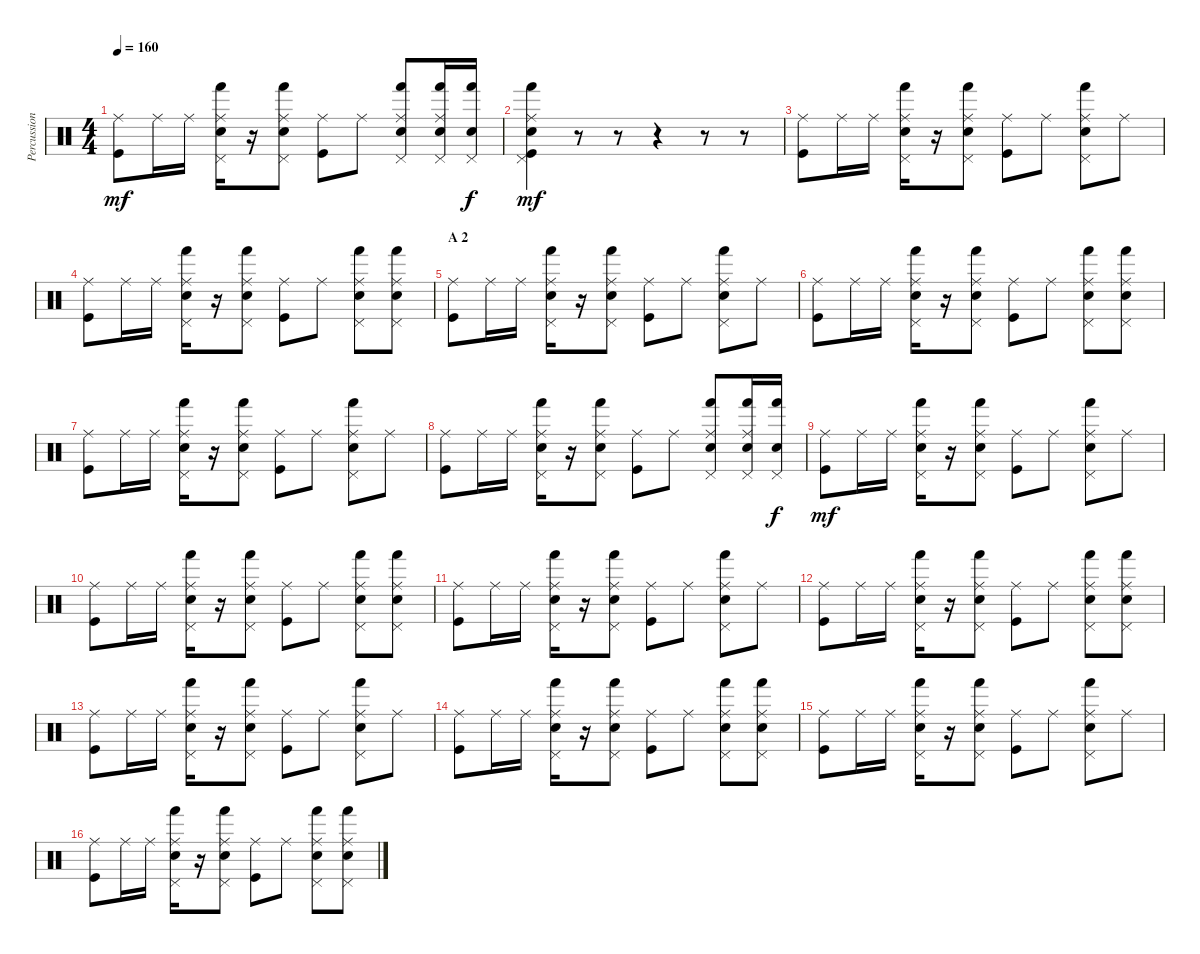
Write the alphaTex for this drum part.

\track ("Percussion" "Percussion") {instrument percussion}
\staff {score}
\articulation defaults
\ts (4 4)
\tempo 160
\clef neutral
\ks c
("Ride (middle)" "Kick (hit)").8{dy mf} "Ride (middle)".16 "Ride (middle)".16 ("Ride (middle)" "Pedal Hi-Hat (hit)" "Hand (hit)" "Electric Snare (hit)").16 r.16 ("Ride (middle)" "Pedal Hi-Hat (hit)" "Hand (hit)" "Electric Snare (hit)").8 ("Ride (middle)" "Kick (hit)").8 "Ride (middle)".8 ("Ride (middle)" "Pedal Hi-Hat (hit)" "Hand (hit)" "Electric Snare (hit)").8 ("Ride (middle)" "Pedal Hi-Hat (hit)" "Hand (hit)" "Electric Snare (hit)").16 ("Pedal Hi-Hat (hit)" "Hand (hit)" "Electric Snare (hit)").16{dy f} |
("Ride (middle)" "Pedal Hi-Hat (hit)" "Hand (hit)" "Electric Snare (hit)" "Kick (hit)").4{dy mf} r.8 r.8 r.4 r.8 r.8 |
("Ride (middle)" "Kick (hit)").8 "Ride (middle)".16 "Ride (middle)".16 ("Ride (middle)" "Pedal Hi-Hat (hit)" "Hand (hit)" "Electric Snare (hit)").16 r.16 ("Ride (middle)" "Pedal Hi-Hat (hit)" "Hand (hit)" "Electric Snare (hit)").8 ("Ride (middle)" "Kick (hit)").8 "Ride (middle)".8 ("Ride (middle)" "Pedal Hi-Hat (hit)" "Hand (hit)" "Electric Snare (hit)").8 "Ride (middle)".8 |
("Ride (middle)" "Kick (hit)").8 "Ride (middle)".16 "Ride (middle)".16 ("Ride (middle)" "Pedal Hi-Hat (hit)" "Hand (hit)" "Electric Snare (hit)").16 r.16 ("Ride (middle)" "Pedal Hi-Hat (hit)" "Hand (hit)" "Electric Snare (hit)").8 ("Ride (middle)" "Kick (hit)").8 "Ride (middle)".8 ("Ride (middle)" "Pedal Hi-Hat (hit)" "Hand (hit)" "Electric Snare (hit)").8 ("Ride (middle)" "Pedal Hi-Hat (hit)" "Hand (hit)" "Electric Snare (hit)").8 |
\section ("" "A 2")
("Ride (middle)" "Kick (hit)").8 "Ride (middle)".16 "Ride (middle)".16 ("Ride (middle)" "Pedal Hi-Hat (hit)" "Hand (hit)" "Electric Snare (hit)").16 r.16 ("Ride (middle)" "Pedal Hi-Hat (hit)" "Hand (hit)" "Electric Snare (hit)").8 ("Ride (middle)" "Kick (hit)").8 "Ride (middle)".8 ("Ride (middle)" "Pedal Hi-Hat (hit)" "Hand (hit)" "Electric Snare (hit)").8 "Ride (middle)".8 |
("Ride (middle)" "Kick (hit)").8 "Ride (middle)".16 "Ride (middle)".16 ("Ride (middle)" "Pedal Hi-Hat (hit)" "Hand (hit)" "Electric Snare (hit)").16 r.16 ("Ride (middle)" "Pedal Hi-Hat (hit)" "Hand (hit)" "Electric Snare (hit)").8 ("Ride (middle)" "Kick (hit)").8 "Ride (middle)".8 ("Ride (middle)" "Pedal Hi-Hat (hit)" "Hand (hit)" "Electric Snare (hit)").8 ("Ride (middle)" "Pedal Hi-Hat (hit)" "Hand (hit)" "Electric Snare (hit)").8 |
("Ride (middle)" "Kick (hit)").8 "Ride (middle)".16 "Ride (middle)".16 ("Ride (middle)" "Pedal Hi-Hat (hit)" "Hand (hit)" "Electric Snare (hit)").16 r.16 ("Ride (middle)" "Pedal Hi-Hat (hit)" "Hand (hit)" "Electric Snare (hit)").8 ("Ride (middle)" "Kick (hit)").8 "Ride (middle)".8 ("Ride (middle)" "Pedal Hi-Hat (hit)" "Hand (hit)" "Electric Snare (hit)").8 "Ride (middle)".8 |
("Ride (middle)" "Kick (hit)").8 "Ride (middle)".16 "Ride (middle)".16 ("Ride (middle)" "Pedal Hi-Hat (hit)" "Hand (hit)" "Electric Snare (hit)").16 r.16 ("Ride (middle)" "Pedal Hi-Hat (hit)" "Hand (hit)" "Electric Snare (hit)").8 ("Ride (middle)" "Kick (hit)").8 "Ride (middle)".8 ("Ride (middle)" "Pedal Hi-Hat (hit)" "Hand (hit)" "Electric Snare (hit)").8 ("Ride (middle)" "Pedal Hi-Hat (hit)" "Hand (hit)" "Electric Snare (hit)").16 ("Pedal Hi-Hat (hit)" "Hand (hit)" "Electric Snare (hit)").16{dy f} |
("Ride (middle)" "Kick (hit)").8{dy mf} "Ride (middle)".16 "Ride (middle)".16 ("Ride (middle)" "Pedal Hi-Hat (hit)" "Hand (hit)" "Electric Snare (hit)").16 r.16 ("Ride (middle)" "Pedal Hi-Hat (hit)" "Hand (hit)" "Electric Snare (hit)").8 ("Ride (middle)" "Kick (hit)").8 "Ride (middle)".8 ("Ride (middle)" "Pedal Hi-Hat (hit)" "Hand (hit)" "Electric Snare (hit)").8 "Ride (middle)".8 |
("Ride (middle)" "Kick (hit)").8 "Ride (middle)".16 "Ride (middle)".16 ("Ride (middle)" "Pedal Hi-Hat (hit)" "Hand (hit)" "Electric Snare (hit)").16 r.16 ("Ride (middle)" "Pedal Hi-Hat (hit)" "Hand (hit)" "Electric Snare (hit)").8 ("Ride (middle)" "Kick (hit)").8 "Ride (middle)".8 ("Ride (middle)" "Pedal Hi-Hat (hit)" "Hand (hit)" "Electric Snare (hit)").8 ("Ride (middle)" "Pedal Hi-Hat (hit)" "Hand (hit)" "Electric Snare (hit)").8 |
("Ride (middle)" "Kick (hit)").8 "Ride (middle)".16 "Ride (middle)".16 ("Ride (middle)" "Pedal Hi-Hat (hit)" "Hand (hit)" "Electric Snare (hit)").16 r.16 ("Ride (middle)" "Pedal Hi-Hat (hit)" "Hand (hit)" "Electric Snare (hit)").8 ("Ride (middle)" "Kick (hit)").8 "Ride (middle)".8 ("Ride (middle)" "Pedal Hi-Hat (hit)" "Hand (hit)" "Electric Snare (hit)").8 "Ride (middle)".8 |
("Ride (middle)" "Kick (hit)").8 "Ride (middle)".16 "Ride (middle)".16 ("Ride (middle)" "Pedal Hi-Hat (hit)" "Hand (hit)" "Electric Snare (hit)").16 r.16 ("Ride (middle)" "Pedal Hi-Hat (hit)" "Hand (hit)" "Electric Snare (hit)").8 ("Ride (middle)" "Kick (hit)").8 "Ride (middle)".8 ("Ride (middle)" "Pedal Hi-Hat (hit)" "Hand (hit)" "Electric Snare (hit)").8 ("Ride (middle)" "Pedal Hi-Hat (hit)" "Hand (hit)" "Electric Snare (hit)").8 |
("Ride (middle)" "Kick (hit)").8 "Ride (middle)".16 "Ride (middle)".16 ("Ride (middle)" "Pedal Hi-Hat (hit)" "Hand (hit)" "Electric Snare (hit)").16 r.16 ("Ride (middle)" "Pedal Hi-Hat (hit)" "Hand (hit)" "Electric Snare (hit)").8 ("Ride (middle)" "Kick (hit)").8 "Ride (middle)".8 ("Ride (middle)" "Pedal Hi-Hat (hit)" "Hand (hit)" "Electric Snare (hit)").8 "Ride (middle)".8 |
("Ride (middle)" "Kick (hit)").8 "Ride (middle)".16 "Ride (middle)".16 ("Ride (middle)" "Pedal Hi-Hat (hit)" "Hand (hit)" "Electric Snare (hit)").16 r.16 ("Ride (middle)" "Pedal Hi-Hat (hit)" "Hand (hit)" "Electric Snare (hit)").8 ("Ride (middle)" "Kick (hit)").8 "Ride (middle)".8 ("Ride (middle)" "Pedal Hi-Hat (hit)" "Hand (hit)" "Electric Snare (hit)").8 ("Ride (middle)" "Pedal Hi-Hat (hit)" "Hand (hit)" "Electric Snare (hit)").8 |
("Ride (middle)" "Kick (hit)").8 "Ride (middle)".16 "Ride (middle)".16 ("Ride (middle)" "Pedal Hi-Hat (hit)" "Hand (hit)" "Electric Snare (hit)").16 r.16 ("Ride (middle)" "Pedal Hi-Hat (hit)" "Hand (hit)" "Electric Snare (hit)").8 ("Ride (middle)" "Kick (hit)").8 "Ride (middle)".8 ("Ride (middle)" "Pedal Hi-Hat (hit)" "Hand (hit)" "Electric Snare (hit)").8 "Ride (middle)".8 |
("Ride (middle)" "Kick (hit)").8 "Ride (middle)".16 "Ride (middle)".16 ("Ride (middle)" "Pedal Hi-Hat (hit)" "Hand (hit)" "Electric Snare (hit)").16 r.16 ("Ride (middle)" "Pedal Hi-Hat (hit)" "Hand (hit)" "Electric Snare (hit)").8 ("Ride (middle)" "Kick (hit)").8 "Ride (middle)".8 ("Ride (middle)" "Pedal Hi-Hat (hit)" "Hand (hit)" "Electric Snare (hit)").8 ("Ride (middle)" "Pedal Hi-Hat (hit)" "Hand (hit)" "Electric Snare (hit)").8
